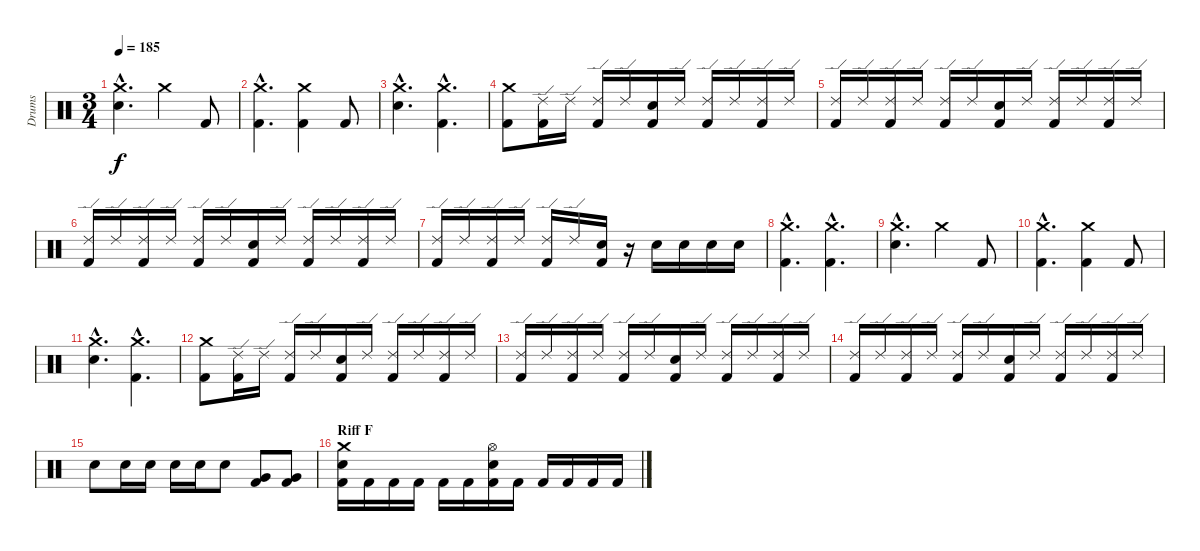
\track ("Drums" "Drums") {instrument percussion}
\staff {score}
\articulation defaults
\ts (3 4)
\tempo 185
\clef neutral
\ks c
("Crash medium (hit)"{hac} "Electric Snare (hit)"{hac}).4{d dy f} "Crash medium (hit)".4 "Kick (hit) 2".8 |
("Crash medium (hit)"{hac} "Kick (hit) 2"{hac}).4{d} ("Crash medium (hit)" "Kick (hit) 2").4 "Kick (hit) 2".8 |
("Crash medium (hit)"{hac} "Electric Snare (hit)"{hac}).4{d} ("Crash medium (hit)"{hac} "Kick (hit) 2"{hac}).4{d} |
("Crash medium (hit)" "Kick (hit) 2").8 ("Ride (edge) 2" "Kick (hit) 2").16 "Ride (edge) 2".16 ("Ride (edge) 2" "Kick (hit) 2").16 "Ride (edge) 2".16 ("Electric Snare (hit)" "Kick (hit) 2").16 "Ride (edge) 2".16 ("Ride (edge) 2" "Kick (hit) 2").16 "Ride (edge) 2".16 ("Ride (edge) 2" "Kick (hit) 2").16 "Ride (edge) 2".16 |
("Ride (edge) 2" "Kick (hit) 2").16 "Ride (edge) 2".16 ("Ride (edge) 2" "Kick (hit) 2").16 "Ride (edge) 2".16 ("Ride (edge) 2" "Kick (hit) 2").16 "Ride (edge) 2".16 ("Electric Snare (hit)" "Kick (hit) 2").16 "Ride (edge) 2".16 ("Ride (edge) 2" "Kick (hit) 2").16 "Ride (edge) 2".16 ("Ride (edge) 2" "Kick (hit) 2").16 "Ride (edge) 2".16 |
("Ride (edge) 2" "Kick (hit) 2").16 "Ride (edge) 2".16 ("Ride (edge) 2" "Kick (hit) 2").16 "Ride (edge) 2".16 ("Ride (edge) 2" "Kick (hit) 2").16 "Ride (edge) 2".16 ("Electric Snare (hit)" "Kick (hit) 2").16 "Ride (edge) 2".16 ("Ride (edge) 2" "Kick (hit) 2").16 "Ride (edge) 2".16 ("Ride (edge) 2" "Kick (hit) 2").16 "Ride (edge) 2".16 |
("Ride (edge) 2" "Kick (hit) 2").16 "Ride (edge) 2".16 ("Ride (edge) 2" "Kick (hit) 2").16 "Ride (edge) 2".16 ("Ride (edge) 2" "Kick (hit) 2").16 "Ride (edge) 2".16 ("Electric Snare (hit)" "Kick (hit) 2").16 r.16 "Electric Snare (hit)".16 "Electric Snare (hit)".16 "Electric Snare (hit)".16 "Electric Snare (hit)".16 |
("Crash medium (hit)"{hac} "Kick (hit) 2"{hac}).4{d} ("Crash medium (hit)"{hac} "Kick (hit) 2"{hac}).4{d} |
("Crash medium (hit)"{hac} "Electric Snare (hit)"{hac}).4{d} "Crash medium (hit)".4 "Kick (hit) 2".8 |
("Crash medium (hit)"{hac} "Kick (hit) 2"{hac}).4{d} ("Crash medium (hit)" "Kick (hit) 2").4 "Kick (hit) 2".8 |
("Crash medium (hit)"{hac} "Electric Snare (hit)"{hac}).4{d} ("Crash medium (hit)"{hac} "Kick (hit) 2"{hac}).4{d} |
("Crash medium (hit)" "Kick (hit) 2").8 ("Ride (edge) 2" "Kick (hit) 2").16 "Ride (edge) 2".16 ("Ride (edge) 2" "Kick (hit) 2").16 "Ride (edge) 2".16 ("Electric Snare (hit)" "Kick (hit) 2").16 "Ride (edge) 2".16 ("Ride (edge) 2" "Kick (hit) 2").16 "Ride (edge) 2".16 ("Ride (edge) 2" "Kick (hit) 2").16 "Ride (edge) 2".16 |
("Ride (edge) 2" "Kick (hit) 2").16 "Ride (edge) 2".16 ("Ride (edge) 2" "Kick (hit) 2").16 "Ride (edge) 2".16 ("Ride (edge) 2" "Kick (hit) 2").16 "Ride (edge) 2".16 ("Electric Snare (hit)" "Kick (hit) 2").16 "Ride (edge) 2".16 ("Ride (edge) 2" "Kick (hit) 2").16 "Ride (edge) 2".16 ("Ride (edge) 2" "Kick (hit) 2").16 "Ride (edge) 2".16 |
("Ride (edge) 2" "Kick (hit) 2").16 "Ride (edge) 2".16 ("Ride (edge) 2" "Kick (hit) 2").16 "Ride (edge) 2".16 ("Ride (edge) 2" "Kick (hit) 2").16 "Ride (edge) 2".16 ("Electric Snare (hit)" "Kick (hit) 2").16 "Ride (edge) 2".16 ("Ride (edge) 2" "Kick (hit) 2").16 "Ride (edge) 2".16 ("Ride (edge) 2" "Kick (hit) 2").16 "Ride (edge) 2".16 |
"Electric Snare (hit)".8 "Electric Snare (hit)".16 "Electric Snare (hit)".16 "Electric Snare (hit)".16 "Electric Snare (hit)".16 "Electric Snare (hit)".8 ("Very Low Tom (hit)" "Kick (hit) 2").8 ("Very Low Tom (hit)" "Kick (hit) 2").8 |
\section ("" "Riff F")
("Crash medium (hit)" "Electric Snare (hit)" "Kick (hit) 2").16 "Kick (hit) 2".16 "Kick (hit) 2".16 "Kick (hit) 2".16 "Kick (hit) 2".16 "Kick (hit) 2".16 ("Hi-Hat (open)" "Electric Snare (hit)" "Kick (hit) 2").16 "Kick (hit) 2".16 "Kick (hit) 2".16 "Kick (hit) 2".16 "Kick (hit) 2".16 "Kick (hit) 2".16
